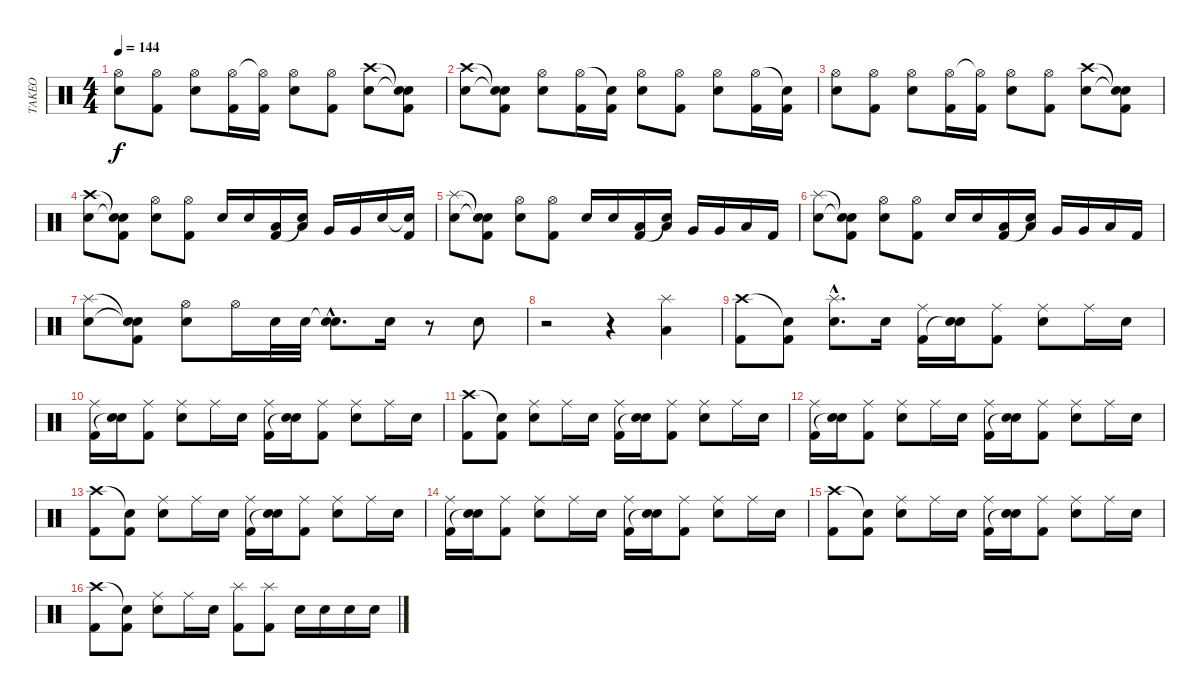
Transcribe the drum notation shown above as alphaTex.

\track ("TAKEO" "TAKEO") {instrument percussion}
\staff {score}
\articulation defaults
\ts (4 4)
\tempo 144
\clef neutral
\ks c
("Hi-Hat (open)" "Electric Snare (hit)").8{dy f} ("Hi-Hat (open)" "Kick (hit) 2").8 ("Hi-Hat (open)" "Electric Snare (hit)").8 ("Hi-Hat (open)" "Kick (hit) 2").16 ("Hi-Hat (open)"{t} "Kick (hit) 2").16 ("Hi-Hat (open)" "Electric Snare (hit)").8 ("Hi-Hat (open)" "Kick (hit) 2").8 ("Crash high (hit)" "Electric Snare (hit)").8 ("Snare (hit)"{t} "Snare (hit)"{t} "Kick (hit) 2").8 |
("Crash high (hit)" "Electric Snare (hit)").8 ("Snare (hit)"{t} "Snare (hit)"{t} "Kick (hit) 2").8 ("Hi-Hat (open)" "Electric Snare (hit)").8 ("Hi-Hat (open)" "Kick (hit) 2").16 ("Snare (hit)"{t} "Kick (hit) 2").16 ("Hi-Hat (open)" "Electric Snare (hit)").8 ("Hi-Hat (open)" "Kick (hit) 2").8 ("Hi-Hat (open)" "Electric Snare (hit)").8 ("Hi-Hat (open)" "Kick (hit) 2").16 ("Snare (hit)"{t} "Kick (hit) 2").16 |
("Hi-Hat (open)" "Electric Snare (hit)").8 ("Hi-Hat (open)" "Kick (hit) 2").8 ("Hi-Hat (open)" "Electric Snare (hit)").8 ("Hi-Hat (open)" "Kick (hit) 2").16 ("Hi-Hat (open)"{t} "Kick (hit) 2").16 ("Hi-Hat (open)" "Electric Snare (hit)").8 ("Hi-Hat (open)" "Kick (hit) 2").8 ("Crash high (hit)" "Electric Snare (hit)").8 ("Snare (hit)"{t} "Snare (hit)"{t} "Kick (hit) 2").8 |
("Crash high (hit)" "Electric Snare (hit)").8 ("Snare (hit)"{t} "Snare (hit)"{t} "Kick (hit) 2").8 ("Hi-Hat (open)" "Electric Snare (hit)").8 ("Hi-Hat (open)" "Kick (hit) 2").8 "Electric Snare (hit)".16 "Electric Snare (hit)".16 ("Low Tom (hit)" "Kick (hit) 2").16 ("Low Tom (hit)" "Snare (hit)"{t}).16 "Very Low Tom (hit)".16 "Very Low Tom (hit)".16 "Electric Snare (hit)".16 ("Snare (hit)"{t} "Kick (hit) 2").16 |
("Splash (hit)" "Electric Snare (hit)").8 ("Snare (hit)"{t} "Snare (hit)"{t} "Kick (hit) 2").8 ("Hi-Hat (open)" "Electric Snare (hit)").8 ("Hi-Hat (open)" "Kick (hit) 2").8 "Electric Snare (hit)".16 "Electric Snare (hit)".16 ("Low Tom (hit)" "Kick (hit) 2").16 ("Low Tom (hit)" "Snare (hit)"{t}).16 "Very Low Tom (hit)".16 "Very Low Tom (hit)".16 "Low Floor Tom (hit)".16 "Kick (hit) 2".16 |
("Splash (hit)" "Electric Snare (hit)").8 ("Snare (hit)"{t} "Snare (hit)"{t} "Kick (hit) 2").8 ("Hi-Hat (open)" "Electric Snare (hit)").8 ("Hi-Hat (open)" "Kick (hit) 2").8 "Electric Snare (hit)".16 "Electric Snare (hit)".16 ("Low Tom (hit)" "Kick (hit) 2").16 ("Low Tom (hit)" "Snare (hit)"{t}).16 "Very Low Tom (hit)".16 "Very Low Tom (hit)".16 "Low Floor Tom (hit)".16 "Kick (hit) 2".16 |
("Splash (hit)" "Electric Snare (hit)").8 ("Snare (hit)"{t} "Snare (hit)"{t} "Kick (hit) 2").8 ("Hi-Hat (open)" "Electric Snare (hit)").8 "Hi-Hat (open)".16 "Electric Snare (hit)".32 "Electric Snare (hit)".32 ("Snare (hit)"{hac t} "Electric Snare (hit)"{hac}).8{d} "Electric Snare (hit)".16 r.8 "Electric Snare (hit)".8 |
r.2 r.4 ("Splash (hit)" "Low Floor Tom (hit)").4 |
("Crash high (hit)" "Kick (hit) 2").8 ("Snare (hit)"{t} "Kick (hit) 2").8 ("Splash (hit)"{hac} "Electric Snare (hit)"{hac}).8{d} "Electric Snare (hit)".16 ("Ride (middle)" "Kick (hit) 2").16 ("Electric Snare (hit)" "Snare (hit)"{t}).16 ("Ride (middle)" "Kick (hit) 2").8 ("Ride (middle)" "Electric Snare (hit)").8 "Ride (middle)".16 "Electric Snare (hit)".16 |
("Ride (middle)" "Kick (hit) 2").16 ("Electric Snare (hit)" "Snare (hit)"{t}).16 ("Ride (middle)" "Kick (hit) 2").8 ("Ride (middle)" "Electric Snare (hit)").8 "Ride (middle)".16 "Electric Snare (hit)".16 ("Ride (middle)" "Kick (hit) 2").16 ("Electric Snare (hit)" "Snare (hit)"{t}).16 ("Ride (middle)" "Kick (hit) 2").8 ("Ride (middle)" "Electric Snare (hit)").8 "Ride (middle)".16 "Electric Snare (hit)".16 |
("Crash high (hit)" "Kick (hit) 2").8 ("Snare (hit)"{t} "Kick (hit) 2").8 ("Ride (middle)" "Electric Snare (hit)").8 "Ride (middle)".16 "Electric Snare (hit)".16 ("Ride (middle)" "Kick (hit) 2").16 ("Electric Snare (hit)" "Snare (hit)"{t}).16 ("Ride (middle)" "Kick (hit) 2").8 ("Ride (middle)" "Electric Snare (hit)").8 "Ride (middle)".16 "Electric Snare (hit)".16 |
("Ride (middle)" "Kick (hit) 2").16 ("Electric Snare (hit)" "Snare (hit)"{t}).16 ("Ride (middle)" "Kick (hit) 2").8 ("Ride (middle)" "Electric Snare (hit)").8 "Ride (middle)".16 "Electric Snare (hit)".16 ("Ride (middle)" "Kick (hit) 2").16 ("Electric Snare (hit)" "Snare (hit)"{t}).16 ("Ride (middle)" "Kick (hit) 2").8 ("Ride (middle)" "Electric Snare (hit)").8 "Ride (middle)".16 "Electric Snare (hit)".16 |
("Crash high (hit)" "Kick (hit) 2").8 ("Snare (hit)"{t} "Kick (hit) 2").8 ("Ride (middle)" "Electric Snare (hit)").8 "Ride (middle)".16 "Electric Snare (hit)".16 ("Ride (middle)" "Kick (hit) 2").16 ("Electric Snare (hit)" "Snare (hit)"{t}).16 ("Ride (middle)" "Kick (hit) 2").8 ("Ride (middle)" "Electric Snare (hit)").8 "Ride (middle)".16 "Electric Snare (hit)".16 |
("Ride (middle)" "Kick (hit) 2").16 ("Electric Snare (hit)" "Snare (hit)"{t}).16 ("Ride (middle)" "Kick (hit) 2").8 ("Ride (middle)" "Electric Snare (hit)").8 "Ride (middle)".16 "Electric Snare (hit)".16 ("Ride (middle)" "Kick (hit) 2").16 ("Electric Snare (hit)" "Snare (hit)"{t}).16 ("Ride (middle)" "Kick (hit) 2").8 ("Ride (middle)" "Electric Snare (hit)").8 "Ride (middle)".16 "Electric Snare (hit)".16 |
("Crash high (hit)" "Kick (hit) 2").8 ("Snare (hit)"{t} "Kick (hit) 2").8 ("Ride (middle)" "Electric Snare (hit)").8 "Ride (middle)".16 "Electric Snare (hit)".16 ("Ride (middle)" "Kick (hit) 2").16 ("Electric Snare (hit)" "Snare (hit)"{t}).16 ("Ride (middle)" "Kick (hit) 2").8 ("Ride (middle)" "Electric Snare (hit)").8 "Ride (middle)".16 "Electric Snare (hit)".16 |
("Crash high (hit)" "Kick (hit) 2").8 ("Snare (hit)"{t} "Kick (hit) 2").8 ("Ride (middle)" "Electric Snare (hit)").8 "Ride (middle)".16 "Electric Snare (hit)".16 ("Splash (hit)" "Kick (hit) 2").8 ("Splash (hit)" "Kick (hit) 2").8 "Electric Snare (hit)".16 "Electric Snare (hit)".16 "Electric Snare (hit)".16 "Electric Snare (hit)".16
